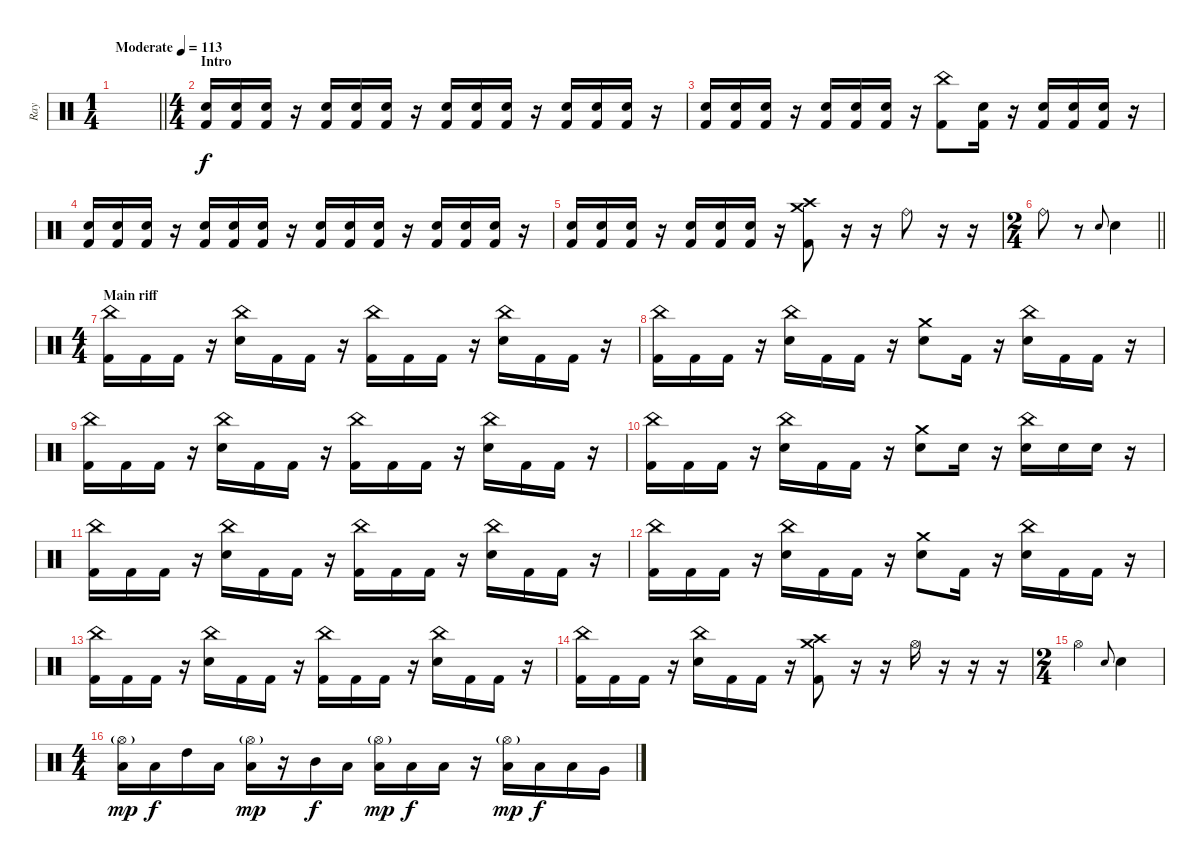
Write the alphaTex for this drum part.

\track ("Ray" "Ray") {instrument percussion}
\staff {score}
\articulation defaults
\ts (1 4)
\tempo (113 "Moderate")
\clef neutral
\barLineRight lightlight
\ks c
|
\ts (4 4)
\section ("" "Intro")
("Kick (hit) 2" "Electric Snare (hit)").16 ("Kick (hit) 2" "Electric Snare (hit)").16 ("Kick (hit) 2" "Electric Snare (hit)").16 r.16 ("Kick (hit) 2" "Electric Snare (hit)").16 ("Kick (hit) 2" "Electric Snare (hit)").16 ("Kick (hit) 2" "Electric Snare (hit)").16 r.16 ("Kick (hit) 2" "Electric Snare (hit)").16 ("Kick (hit) 2" "Electric Snare (hit)").16 ("Kick (hit) 2" "Electric Snare (hit)").16 r.16 ("Kick (hit) 2" "Electric Snare (hit)").16 ("Kick (hit) 2" "Electric Snare (hit)").16 ("Kick (hit) 2" "Electric Snare (hit)").16 r.16 |
("Kick (hit) 2" "Electric Snare (hit)").16 ("Kick (hit) 2" "Electric Snare (hit)").16 ("Kick (hit) 2" "Electric Snare (hit)").16 r.16 ("Kick (hit) 2" "Electric Snare (hit)").16 ("Kick (hit) 2" "Electric Snare (hit)").16 ("Kick (hit) 2" "Electric Snare (hit)").16 r.16 ("China (hit)" "Kick (hit) 2").8 ("Electric Snare (hit)" "Kick (hit) 2").16 r.16 ("Kick (hit) 2" "Electric Snare (hit)").16 ("Kick (hit) 2" "Electric Snare (hit)").16 ("Kick (hit) 2" "Electric Snare (hit)").16 r.16 |
("Kick (hit) 2" "Electric Snare (hit)").16 ("Kick (hit) 2" "Electric Snare (hit)").16 ("Kick (hit) 2" "Electric Snare (hit)").16 r.16 ("Kick (hit) 2" "Electric Snare (hit)").16 ("Kick (hit) 2" "Electric Snare (hit)").16 ("Kick (hit) 2" "Electric Snare (hit)").16 r.16 ("Kick (hit) 2" "Electric Snare (hit)").16 ("Kick (hit) 2" "Electric Snare (hit)").16 ("Kick (hit) 2" "Electric Snare (hit)").16 r.16 ("Kick (hit) 2" "Electric Snare (hit)").16 ("Kick (hit) 2" "Electric Snare (hit)").16 ("Kick (hit) 2" "Electric Snare (hit)").16 r.16 |
("Kick (hit) 2" "Electric Snare (hit)").16 ("Kick (hit) 2" "Electric Snare (hit)").16 ("Kick (hit) 2" "Electric Snare (hit)").16 r.16 ("Kick (hit) 2" "Electric Snare (hit)").16 ("Kick (hit) 2" "Electric Snare (hit)").16 ("Kick (hit) 2" "Electric Snare (hit)").16 r.16 ("Crash high (hit)" "Crash medium (hit)" "Kick (hit) 2").8 r.16 r.16 "Ride (bell)".8 r.16 r.16 |
\ts (2 4)
\barLineRight lightlight "Ride (bell)".8
r.8 "Electric Snare (hit)"{h}.8{gr onbeat} "Electric Snare (hit)".4 |
\ts (4 4)
\section ("" "Main riff")
("China (hit)" "Kick (hit) 2").16 "Kick (hit) 2".16 "Kick (hit) 2".16 r.16 ("China (hit)" "Electric Snare (hit)").16 "Kick (hit) 2".16 "Kick (hit) 2".16 r.16 ("China (hit)" "Kick (hit) 2").16 "Kick (hit) 2".16 "Kick (hit) 2".16 r.16 ("China (hit)" "Electric Snare (hit)").16 "Kick (hit) 2".16 "Kick (hit) 2".16 r.16 |
("China (hit)" "Kick (hit) 2").16 "Kick (hit) 2".16 "Kick (hit) 2".16 r.16 ("China (hit)" "Electric Snare (hit)").16 "Kick (hit) 2".16 "Kick (hit) 2".16 r.16 ("Crash medium (hit)" "Electric Snare (hit)").8 "Kick (hit) 2".16 r.16 ("China (hit)" "Electric Snare (hit)").16 "Kick (hit) 2".16 "Kick (hit) 2".16 r.16 |
("China (hit)" "Kick (hit) 2").16 "Kick (hit) 2".16 "Kick (hit) 2".16 r.16 ("China (hit)" "Electric Snare (hit)").16 "Kick (hit) 2".16 "Kick (hit) 2".16 r.16 ("China (hit)" "Kick (hit) 2").16 "Kick (hit) 2".16 "Kick (hit) 2".16 r.16 ("China (hit)" "Electric Snare (hit)").16 "Kick (hit) 2".16 "Kick (hit) 2".16 r.16 |
("China (hit)" "Kick (hit) 2").16 "Kick (hit) 2".16 "Kick (hit) 2".16 r.16 ("China (hit)" "Electric Snare (hit)").16 "Kick (hit) 2".16 "Kick (hit) 2".16 r.16 ("Crash medium (hit)" "Electric Snare (hit)").8 "Electric Snare (hit)".16 r.16 ("China (hit)" "Electric Snare (hit)").16 "Electric Snare (hit)".16 "Electric Snare (hit)".16 r.16 |
("China (hit)" "Kick (hit) 2").16 "Kick (hit) 2".16 "Kick (hit) 2".16 r.16 ("China (hit)" "Electric Snare (hit)").16 "Kick (hit) 2".16 "Kick (hit) 2".16 r.16 ("China (hit)" "Kick (hit) 2").16 "Kick (hit) 2".16 "Kick (hit) 2".16 r.16 ("China (hit)" "Electric Snare (hit)").16 "Kick (hit) 2".16 "Kick (hit) 2".16 r.16 |
("China (hit)" "Kick (hit) 2").16 "Kick (hit) 2".16 "Kick (hit) 2".16 r.16 ("China (hit)" "Electric Snare (hit)").16 "Kick (hit) 2".16 "Kick (hit) 2".16 r.16 ("Crash medium (hit)" "Electric Snare (hit)").8 "Kick (hit) 2".16 r.16 ("China (hit)" "Electric Snare (hit)").16 "Kick (hit) 2".16 "Kick (hit) 2".16 r.16 |
("China (hit)" "Kick (hit) 2").16 "Kick (hit) 2".16 "Kick (hit) 2".16 r.16 ("China (hit)" "Electric Snare (hit)").16 "Kick (hit) 2".16 "Kick (hit) 2".16 r.16 ("China (hit)" "Kick (hit) 2").16 "Kick (hit) 2".16 "Kick (hit) 2".16 r.16 ("China (hit)" "Electric Snare (hit)").16 "Kick (hit) 2".16 "Kick (hit) 2".16 r.16 |
("China (hit)" "Kick (hit) 2").16 "Kick (hit) 2".16 "Kick (hit) 2".16 r.16 ("China (hit)" "Electric Snare (hit)").16 "Kick (hit) 2".16 "Kick (hit) 2".16 r.16 ("Crash medium (hit)" "Crash high (hit)" "Kick (hit) 2").8 r.16 r.16 "Hi-Hat (open)".16 r.16 r.16 r.16 |
\ts (2 4)
"Hi-Hat (open)".4 "Electric Snare (hit)"{h}.8{gr onbeat} "Electric Snare (hit)".4 |
\ts (4 4)
("Hi-Hat (open)"{g} "Low Floor Tom (hit)").16{dy mp} "Low Floor Tom (hit)".16{dy f} "High Tom (hit)".16 "Low Tom (hit)".16 ("Hi-Hat (open)"{g} "Low Floor Tom (hit)").16{dy mp} r.16 "Mid Tom (hit)".16{dy f} "Low Tom (hit)".16 ("Hi-Hat (open)"{g} "Low Floor Tom (hit)").16{dy mp} "Low Floor Tom (hit)".16{dy f} "Low Tom (hit)".16 r.16 ("Hi-Hat (open)"{g} "Low Floor Tom (hit)").16{dy mp} "Low Floor Tom (hit)".16{dy f} "Low Tom (hit)".16 "Very Low Tom (hit)".16
